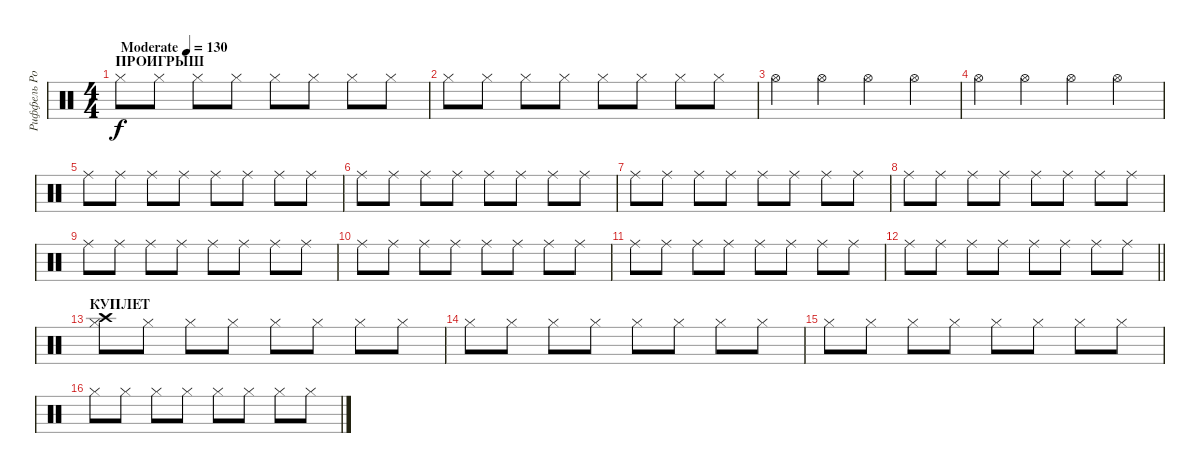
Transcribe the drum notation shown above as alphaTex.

\track ("Риффель Роман (хэты)" "Риффель Ро") {instrument percussion}
\staff {score}
\articulation defaults
\ts (4 4)
\section ("" "ПРОИГРЫШ")
\tempo (130 "Moderate")
\clef neutral
\ks c "Hi-Hat (closed)".8{dy f} "Hi-Hat (closed)".8 "Hi-Hat (closed)".8 "Hi-Hat (closed)".8 "Hi-Hat (closed)".8 "Hi-Hat (closed)".8 "Hi-Hat (closed)".8 "Hi-Hat (closed)".8
|
"Hi-Hat (closed)".8 "Hi-Hat (closed)".8 "Hi-Hat (closed)".8 "Hi-Hat (closed)".8 "Hi-Hat (closed)".8 "Hi-Hat (closed)".8 "Hi-Hat (closed)".8 "Hi-Hat (closed)".8 |
"Hi-Hat (open)".4 "Hi-Hat (open)".4 "Hi-Hat (open)".4 "Hi-Hat (open)".4 |
"Hi-Hat (open)".4 "Hi-Hat (open)".4 "Hi-Hat (open)".4 "Hi-Hat (open)".4 |
"Ride (middle)".8 "Ride (middle)".8 "Ride (middle)".8 "Ride (middle)".8 "Ride (middle)".8 "Ride (middle)".8 "Ride (middle)".8 "Ride (middle)".8 |
"Ride (middle)".8 "Ride (middle)".8 "Ride (middle)".8 "Ride (middle)".8 "Ride (middle)".8 "Ride (middle)".8 "Ride (middle)".8 "Ride (middle)".8 |
"Ride (middle)".8 "Ride (middle)".8 "Ride (middle)".8 "Ride (middle)".8 "Ride (middle)".8 "Ride (middle)".8 "Ride (middle)".8 "Ride (middle)".8 |
"Ride (middle)".8 "Ride (middle)".8 "Ride (middle)".8 "Ride (middle)".8 "Ride (middle)".8 "Ride (middle)".8 "Ride (middle)".8 "Ride (middle)".8 |
"Ride (middle)".8 "Ride (middle)".8 "Ride (middle)".8 "Ride (middle)".8 "Ride (middle)".8 "Ride (middle)".8 "Ride (middle)".8 "Ride (middle)".8 |
"Ride (middle)".8 "Ride (middle)".8 "Ride (middle)".8 "Ride (middle)".8 "Ride (middle)".8 "Ride (middle)".8 "Ride (middle)".8 "Ride (middle)".8 |
"Ride (middle)".8 "Ride (middle)".8 "Ride (middle)".8 "Ride (middle)".8 "Ride (middle)".8 "Ride (middle)".8 "Ride (middle)".8 "Ride (middle)".8 |
\barLineRight lightlight "Ride (middle)".8 "Ride (middle)".8 "Ride (middle)".8 "Ride (middle)".8 "Ride (middle)".8 "Ride (middle)".8 "Ride (middle)".8 "Ride (middle)".8
|
\section ("" "КУПЛЕТ")
("Crash high (hit)" "Hi-Hat (closed)").8 "Hi-Hat (closed)".8 "Hi-Hat (closed)".8 "Hi-Hat (closed)".8 "Hi-Hat (closed)".8 "Hi-Hat (closed)".8 "Hi-Hat (closed)".8 "Hi-Hat (closed)".8 |
"Hi-Hat (closed)".8 "Hi-Hat (closed)".8 "Hi-Hat (closed)".8 "Hi-Hat (closed)".8 "Hi-Hat (closed)".8 "Hi-Hat (closed)".8 "Hi-Hat (closed)".8 "Hi-Hat (closed)".8 |
"Hi-Hat (closed)".8 "Hi-Hat (closed)".8 "Hi-Hat (closed)".8 "Hi-Hat (closed)".8 "Hi-Hat (closed)".8 "Hi-Hat (closed)".8 "Hi-Hat (closed)".8 "Hi-Hat (closed)".8 |
"Hi-Hat (closed)".8 "Hi-Hat (closed)".8 "Hi-Hat (closed)".8 "Hi-Hat (closed)".8 "Hi-Hat (closed)".8 "Hi-Hat (closed)".8 "Hi-Hat (closed)".8 "Hi-Hat (closed)".8
